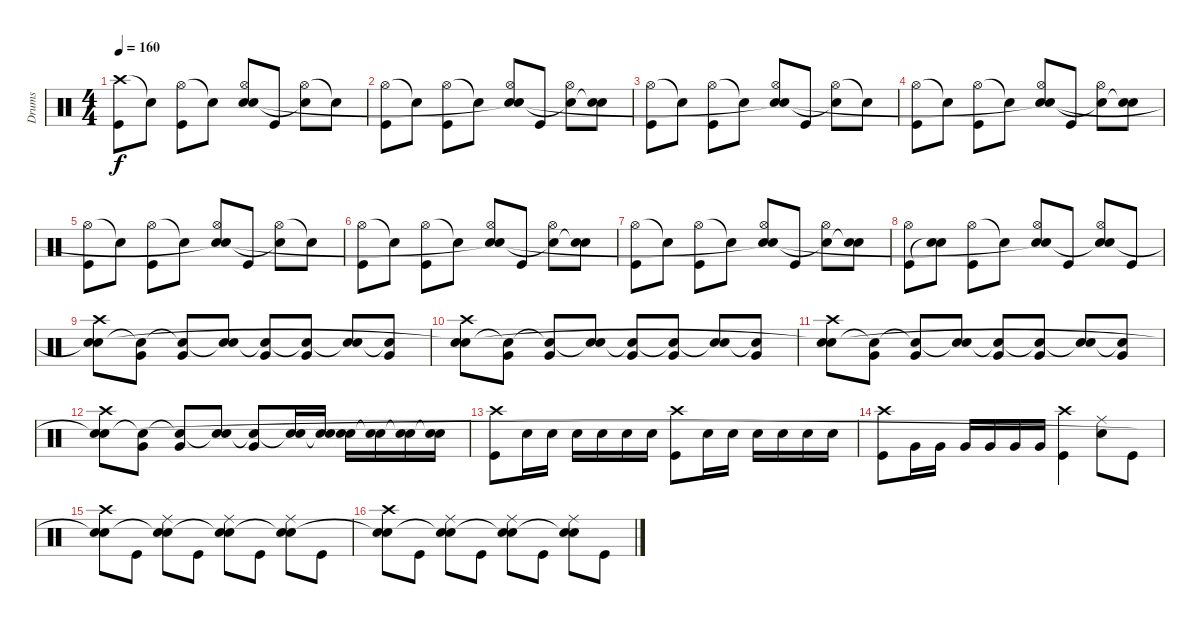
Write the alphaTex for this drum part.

\track ("Drums" "Drums") {instrument percussion}
\staff {score}
\articulation defaults
\ts (4 4)
\tempo 160
\clef neutral
\ks c
("Crash high (hit)" "Kick (hit)").8{dy f} "Snare (hit)"{t}.8 ("Hi-Hat (open)" "Kick (hit)").8 "Snare (hit)"{t}.8 ("Hi-Hat (open)" "Electric Snare (hit)" "Snare (hit)"{t}).8 "Kick (hit)".8 ("Hi-Hat (open)" "Snare (hit)"{t}).8 "Snare (hit)"{t}.8 |
("Hi-Hat (open)" "Kick (hit)").8 "Snare (hit)"{t}.8 ("Hi-Hat (open)" "Kick (hit)").8 "Snare (hit)"{t}.8 ("Hi-Hat (open)" "Electric Snare (hit)" "Snare (hit)"{t}).8 "Kick (hit)".8 ("Hi-Hat (open)" "Snare (hit)"{t}).8 ("Electric Snare (hit)" "Snare (hit)"{t}).8 |
("Hi-Hat (open)" "Kick (hit)").8 "Snare (hit)"{t}.8 ("Hi-Hat (open)" "Kick (hit)").8 "Snare (hit)"{t}.8 ("Hi-Hat (open)" "Electric Snare (hit)" "Snare (hit)"{t}).8 "Kick (hit)".8 ("Hi-Hat (open)" "Snare (hit)"{t}).8 "Snare (hit)"{t}.8 |
("Hi-Hat (open)" "Kick (hit)").8 "Snare (hit)"{t}.8 ("Hi-Hat (open)" "Kick (hit)").8 "Snare (hit)"{t}.8 ("Hi-Hat (open)" "Electric Snare (hit)" "Snare (hit)"{t}).8 "Kick (hit)".8 ("Hi-Hat (open)" "Snare (hit)"{t}).8 ("Electric Snare (hit)" "Snare (hit)"{t}).8 |
("Hi-Hat (open)" "Kick (hit)").8 "Snare (hit)"{t}.8 ("Hi-Hat (open)" "Kick (hit)").8 "Snare (hit)"{t}.8 ("Hi-Hat (open)" "Electric Snare (hit)" "Snare (hit)"{t}).8 "Kick (hit)".8 ("Hi-Hat (open)" "Snare (hit)"{t}).8 "Snare (hit)"{t}.8 |
("Hi-Hat (open)" "Kick (hit)").8 "Snare (hit)"{t}.8 ("Hi-Hat (open)" "Kick (hit)").8 "Snare (hit)"{t}.8 ("Hi-Hat (open)" "Electric Snare (hit)" "Snare (hit)"{t}).8 "Kick (hit)".8 ("Hi-Hat (open)" "Snare (hit)"{t}).8 ("Electric Snare (hit)" "Snare (hit)"{t}).8 |
("Hi-Hat (open)" "Kick (hit)").8 "Snare (hit)"{t}.8 ("Hi-Hat (open)" "Kick (hit)").8 "Snare (hit)"{t}.8 ("Hi-Hat (open)" "Electric Snare (hit)" "Snare (hit)"{t}).8 "Kick (hit)".8 ("Hi-Hat (open)" "Snare (hit)"{t}).8 ("Snare (hit) 2" "Snare (hit)"{t}).8 |
("Hi-Hat (open)" "Kick (hit)").8 ("Electric Snare (hit)" "Snare (hit)"{t}).8 ("Hi-Hat (open)" "Kick (hit)").8 "Snare (hit)"{t}.8 ("Hi-Hat (open)" "Electric Snare (hit)" "Snare (hit)"{t}).8 "Kick (hit)".8 ("Hi-Hat (open)" "Electric Snare (hit)" "Snare (hit)"{t}).8 "Kick (hit)".8 |
("Crash high (hit)" "Electric Snare (hit)" "Snare (hit)"{t}).8 ("Very Low Tom (hit)" "Snare (hit)"{t}).8 ("Very Low Tom (hit)" "Snare (hit)"{t}).8 ("Electric Snare (hit)" "Snare (hit)"{t}).8 ("Very Low Tom (hit)" "Snare (hit)"{t}).8 ("Very Low Tom (hit)" "Snare (hit)"{t}).8 ("Electric Snare (hit)" "Snare (hit)"{t}).8 ("Very Low Tom (hit)" "Snare (hit)"{t}).8 |
("Crash high (hit)" "Electric Snare (hit)" "Snare (hit)"{t}).8 ("Very Low Tom (hit)" "Snare (hit)"{t}).8 ("Very Low Tom (hit)" "Snare (hit)"{t}).8 ("Electric Snare (hit)" "Snare (hit)"{t}).8 ("Very Low Tom (hit)" "Snare (hit)"{t}).8 ("Very Low Tom (hit)" "Snare (hit)"{t}).8 ("Electric Snare (hit)" "Snare (hit)"{t}).8 ("Very Low Tom (hit)" "Snare (hit)"{t}).8 |
("Crash high (hit)" "Electric Snare (hit)" "Snare (hit)"{t}).8 ("Very Low Tom (hit)" "Snare (hit)"{t}).8 ("Very Low Tom (hit)" "Snare (hit)"{t}).8 ("Electric Snare (hit)" "Snare (hit)"{t}).8 ("Very Low Tom (hit)" "Snare (hit)"{t}).8 ("Very Low Tom (hit)" "Snare (hit)"{t}).8 ("Electric Snare (hit)" "Snare (hit)"{t}).8 ("Very Low Tom (hit)" "Snare (hit)"{t}).8 |
("Crash high (hit)" "Electric Snare (hit)" "Snare (hit)"{t}).8 ("Very Low Tom (hit)" "Snare (hit)"{t}).8 ("Very Low Tom (hit)" "Snare (hit)"{t}).8 ("Electric Snare (hit)" "Snare (hit)"{t}).8 ("Very Low Tom (hit)" "Snare (hit)"{t}).8 ("Electric Snare (hit)" "Snare (hit)"{t}).16 ("Electric Snare (hit)" "Snare (hit)"{t}).16 ("Electric Snare (hit)" "Snare (hit)"{t}).16 ("Electric Snare (hit)" "Snare (hit)"{t}).16 ("Electric Snare (hit)" "Snare (hit)"{t}).16 ("Electric Snare (hit)" "Snare (hit)"{t}).16 |
("Crash high (hit)" "Kick (hit)").8 "Electric Snare (hit)".16 "Electric Snare (hit)".16 "Electric Snare (hit)".16 "Electric Snare (hit)".16 "Electric Snare (hit)".16 "Electric Snare (hit)".16 ("Crash high (hit)" "Kick (hit)").8 "Snare (hit) 2".16 "Snare (hit) 2".16 "Snare (hit) 2".16 "Snare (hit) 2".16 "Snare (hit) 2".16 "Snare (hit) 2".16 |
("Crash high (hit)" "Kick (hit)").8 "Very Low Tom (hit)".16 "Very Low Tom (hit)".16 "Very Low Tom (hit)".16 "Very Low Tom (hit)".16 "Very Low Tom (hit)".16 "Very Low Tom (hit)".16 ("Crash high (hit)" "Kick (hit)").4 ("Ride (middle)" "Electric Snare (hit)").8 "Kick (hit)".8 |
("Crash high (hit)" "Electric Snare (hit)" "Snare (hit)"{t}).8 "Kick (hit)".8 ("Ride (middle)" "Electric Snare (hit)" "Snare (hit)"{t}).8 "Kick (hit)".8 ("Ride (middle)" "Electric Snare (hit)" "Snare (hit)"{t}).8 "Kick (hit)".8 ("Ride (middle)" "Electric Snare (hit)" "Snare (hit)"{t}).8 "Kick (hit)".8 |
("Crash high (hit)" "Electric Snare (hit)" "Snare (hit)"{t}).8 "Kick (hit)".8 ("Ride (middle)" "Electric Snare (hit)" "Snare (hit)"{t}).8 "Kick (hit)".8 ("Ride (middle)" "Electric Snare (hit)" "Snare (hit)"{t}).8 "Kick (hit)".8 ("Ride (middle)" "Electric Snare (hit)" "Snare (hit)"{t}).8 "Kick (hit)".8
